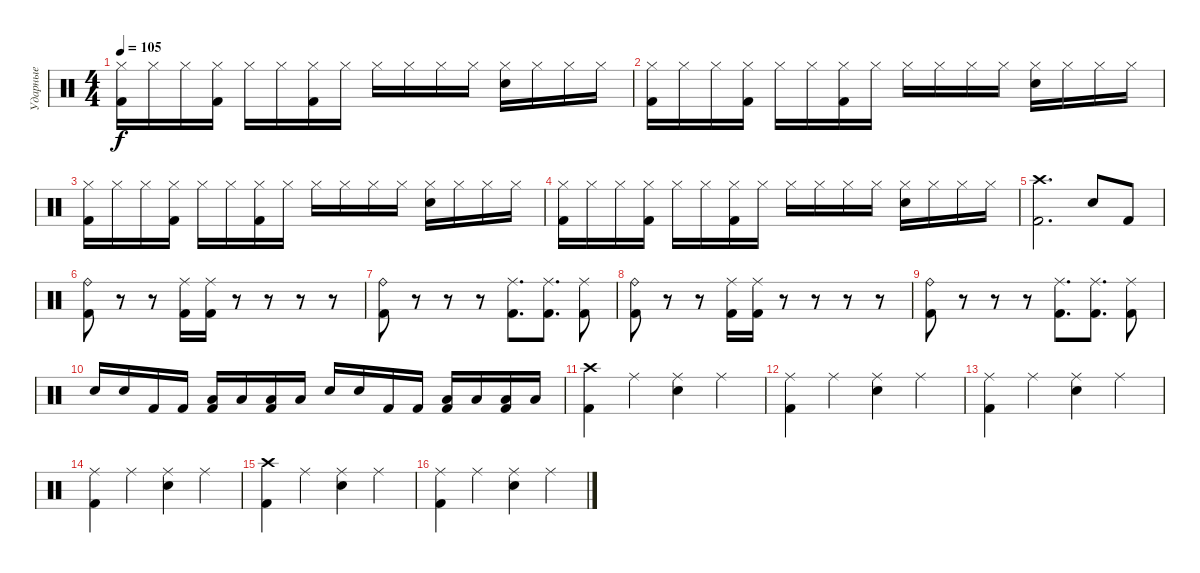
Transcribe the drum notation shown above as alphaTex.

\track ("Ударные" "Ударные") {instrument percussion}
\staff {score}
\articulation defaults
\ts (4 4)
\tempo 105
\clef neutral
\ks c
("Kick (hit) 2" "Hi-Hat (closed)").16{dy f} "Hi-Hat (closed)".16 "Hi-Hat (closed)".16 ("Kick (hit) 2" "Hi-Hat (closed)").16 "Hi-Hat (closed)".16 "Hi-Hat (closed)".16 ("Kick (hit) 2" "Hi-Hat (closed)").16 "Hi-Hat (closed)".16 "Hi-Hat (closed)".16 "Hi-Hat (closed)".16 "Hi-Hat (closed)".16 "Hi-Hat (closed)".16 ("Electric Snare (hit)" "Hi-Hat (closed)").16 "Hi-Hat (closed)".16 "Hi-Hat (closed)".16 "Hi-Hat (closed)".16 |
("Kick (hit) 2" "Hi-Hat (closed)").16 "Hi-Hat (closed)".16 "Hi-Hat (closed)".16 ("Kick (hit) 2" "Hi-Hat (closed)").16 "Hi-Hat (closed)".16 "Hi-Hat (closed)".16 ("Kick (hit) 2" "Hi-Hat (closed)").16 "Hi-Hat (closed)".16 "Hi-Hat (closed)".16 "Hi-Hat (closed)".16 "Hi-Hat (closed)".16 "Hi-Hat (closed)".16 ("Electric Snare (hit)" "Hi-Hat (closed)").16 "Hi-Hat (closed)".16 "Hi-Hat (closed)".16 "Hi-Hat (closed)".16 |
("Kick (hit) 2" "Hi-Hat (closed)").16 "Hi-Hat (closed)".16 "Hi-Hat (closed)".16 ("Kick (hit) 2" "Hi-Hat (closed)").16 "Hi-Hat (closed)".16 "Hi-Hat (closed)".16 ("Kick (hit) 2" "Hi-Hat (closed)").16 "Hi-Hat (closed)".16 "Hi-Hat (closed)".16 "Hi-Hat (closed)".16 "Hi-Hat (closed)".16 "Hi-Hat (closed)".16 ("Electric Snare (hit)" "Hi-Hat (closed)").16 "Hi-Hat (closed)".16 "Hi-Hat (closed)".16 "Hi-Hat (closed)".16 |
("Kick (hit) 2" "Hi-Hat (closed)").16 "Hi-Hat (closed)".16 "Hi-Hat (closed)".16 ("Kick (hit) 2" "Hi-Hat (closed)").16 "Hi-Hat (closed)".16 "Hi-Hat (closed)".16 ("Kick (hit) 2" "Hi-Hat (closed)").16 "Hi-Hat (closed)".16 "Hi-Hat (closed)".16 "Hi-Hat (closed)".16 "Hi-Hat (closed)".16 "Hi-Hat (closed)".16 ("Electric Snare (hit)" "Hi-Hat (closed)").16 "Hi-Hat (closed)".16 "Hi-Hat (closed)".16 "Hi-Hat (closed)".16 |
("Crash high (hit)" "Kick (hit) 2").2{d} "Electric Snare (hit)".8 "Kick (hit) 2".8 |
("Ride (bell)" "Kick (hit) 2").8 r.8 r.8 ("Kick (hit) 2" "Ride (middle)").16 ("Kick (hit) 2" "Ride (middle)").16 r.8 r.8 r.8 r.8 |
("Ride (bell)" "Kick (hit) 2").8 r.8 r.8 r.8 ("Kick (hit) 2" "Ride (middle)").8{d} ("Kick (hit) 2" "Ride (middle)").8{d} ("Kick (hit) 2" "Ride (middle)").8 |
("Ride (bell)" "Kick (hit) 2").8 r.8 r.8 ("Kick (hit) 2" "Ride (middle)").16 ("Kick (hit) 2" "Ride (middle)").16 r.8 r.8 r.8 r.8 |
("Ride (bell)" "Kick (hit) 2").8 r.8 r.8 r.8 ("Kick (hit) 2" "Ride (middle)").8{d} ("Kick (hit) 2" "Ride (middle)").8{d} ("Kick (hit) 2" "Ride (middle)").8 |
"Electric Snare (hit)".16 "Electric Snare (hit)".16 "Kick (hit) 2".16 "Kick (hit) 2".16 ("Low Tom (hit)" "Kick (hit) 2").16 "Low Tom (hit)".16 ("Low Tom (hit)" "Kick (hit) 2").16 "Low Tom (hit)".16 "Electric Snare (hit)".16 "Electric Snare (hit)".16 "Kick (hit) 2".16 "Kick (hit) 2".16 ("Low Tom (hit)" "Kick (hit) 2").16 "Low Tom (hit)".16 ("Low Tom (hit)" "Kick (hit) 2").16 "Low Tom (hit)".16 |
("Crash high (hit)" "Kick (hit) 2").4 "Ride (middle)".4 ("Ride (middle)" "Electric Snare (hit)").4 "Ride (middle)".4 |
("Ride (middle)" "Kick (hit) 2").4 "Ride (middle)".4 ("Ride (middle)" "Electric Snare (hit)").4 "Ride (middle)".4 |
("Ride (middle)" "Kick (hit) 2").4 "Ride (middle)".4 ("Ride (middle)" "Electric Snare (hit)").4 "Ride (middle)".4 |
("Ride (middle)" "Kick (hit) 2").4 "Ride (middle)".4 ("Ride (middle)" "Electric Snare (hit)").4 "Ride (middle)".4 |
("Crash high (hit)" "Kick (hit) 2").4 "Ride (middle)".4 ("Ride (middle)" "Electric Snare (hit)").4 "Ride (middle)".4 |
("Ride (middle)" "Kick (hit) 2").4 "Ride (middle)".4 ("Ride (middle)" "Electric Snare (hit)").4 "Ride (middle)".4
